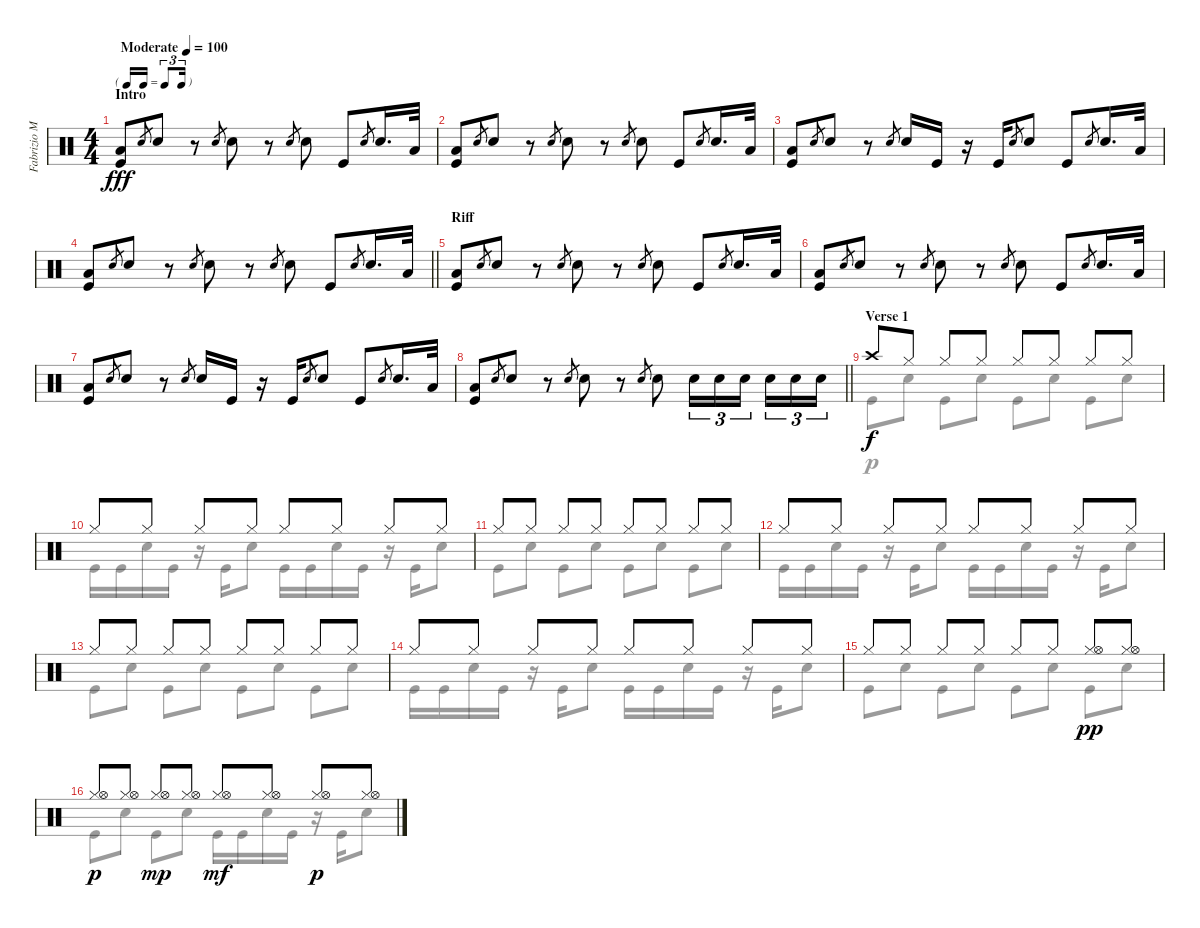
\track ("Fabrizio Moretti (Drum)" "Fabrizio M") {instrument percussion}
\staff {score}
\articulation defaults
\voice
\ts (4 4)
\tf triplet16th
\section ("" "Intro")
\tempo (100 "Moderate")
\clef neutral
\ks c
("Low Floor Tom (hit)" "Kick (hit)").8{dy fff} "Snare (hit) 2".8{gr} "Snare (hit) 2".8 r.8 "Snare (hit) 2".8{gr} "Snare (hit) 2".8 r.8 "Snare (hit) 2".8{gr} "Snare (hit) 2".8 "Kick (hit)".8 "Snare (hit) 2".8{gr} "Snare (hit) 2".16{d} "Low Floor Tom (hit)".32 |
("Low Floor Tom (hit)" "Kick (hit)").8 "Snare (hit) 2".8{gr} "Snare (hit) 2".8 r.8 "Snare (hit) 2".8{gr} "Snare (hit) 2".8 r.8 "Snare (hit) 2".8{gr} "Snare (hit) 2".8 "Kick (hit)".8 "Snare (hit) 2".8{gr} "Snare (hit) 2".16{d} "Low Floor Tom (hit)".32 |
("Low Floor Tom (hit)" "Kick (hit)").8 "Snare (hit) 2".8{gr} "Snare (hit) 2".8 r.8 "Snare (hit) 2".8{gr} "Snare (hit) 2".16 "Kick (hit)".16 r.16 "Kick (hit)".16 "Snare (hit) 2".8{gr} "Snare (hit) 2".8 "Kick (hit)".8 "Snare (hit) 2".8{gr} "Snare (hit) 2".16{d} "Low Floor Tom (hit)".32 |
\barLineRight lightlight
("Low Floor Tom (hit)" "Kick (hit)").8 "Snare (hit) 2".8{gr} "Snare (hit) 2".8 r.8 "Snare (hit) 2".8{gr} "Snare (hit) 2".8 r.8 "Snare (hit) 2".8{gr} "Snare (hit) 2".8 "Kick (hit)".8 "Snare (hit) 2".8{gr} "Snare (hit) 2".16{d} "Low Tom (hit)".32 |
\section ("" "Riff")
("Low Floor Tom (hit)" "Kick (hit)").8 "Snare (hit) 2".8{gr} "Snare (hit) 2".8 r.8 "Snare (hit) 2".8{gr} "Snare (hit) 2".8 r.8 "Snare (hit) 2".8{gr} "Snare (hit) 2".8 "Kick (hit)".8 "Snare (hit) 2".8{gr} "Snare (hit) 2".16{d} "Low Tom (hit)".32 |
("Low Floor Tom (hit)" "Kick (hit)").8 "Snare (hit) 2".8{gr} "Snare (hit) 2".8 r.8 "Snare (hit) 2".8{gr} "Snare (hit) 2".8 r.8 "Snare (hit) 2".8{gr} "Snare (hit) 2".8 "Kick (hit)".8 "Snare (hit) 2".8{gr} "Snare (hit) 2".16{d} "Low Tom (hit)".32 |
("Low Floor Tom (hit)" "Kick (hit)").8 "Snare (hit) 2".8{gr} "Snare (hit) 2".8 r.8 "Snare (hit) 2".8{gr} "Snare (hit) 2".16 "Kick (hit)".16 r.16 "Kick (hit)".16 "Snare (hit) 2".8{gr} "Snare (hit) 2".8 "Kick (hit)".8 "Snare (hit) 2".8{gr} "Snare (hit) 2".16{d} "Low Tom (hit)".32 |
\barLineRight lightlight
("Low Floor Tom (hit)" "Kick (hit)").8 "Snare (hit) 2".8{gr} "Snare (hit) 2".8 r.8 "Snare (hit) 2".8{gr} "Snare (hit) 2".8 r.8 "Snare (hit) 2".8{gr} "Snare (hit) 2".8 "Snare (hit) 2".16{tu (3 2)} "Snare (hit) 2".16{tu (3 2)} "Snare (hit) 2".16{tu (3 2) beam splitsecondary} "Snare (hit) 2".16{tu (3 2)} "Snare (hit) 2".16{tu (3 2)} "Snare (hit) 2".16{tu (3 2)} |
\section ("" "Verse 1")
"Crash high (hit)".8{dy f} "Hi-Hat (closed)".8 "Hi-Hat (closed)".8 "Hi-Hat (closed)".8 "Hi-Hat (closed)".8 "Hi-Hat (closed)".8 "Hi-Hat (closed)".8 "Hi-Hat (closed)".8 |
"Hi-Hat (closed)".8 "Hi-Hat (closed)".8 "Hi-Hat (closed)".8 "Hi-Hat (closed)".8 "Hi-Hat (closed)".8 "Hi-Hat (closed)".8 "Hi-Hat (closed)".8 "Hi-Hat (closed)".8 |
"Hi-Hat (closed)".8 "Hi-Hat (closed)".8 "Hi-Hat (closed)".8 "Hi-Hat (closed)".8 "Hi-Hat (closed)".8 "Hi-Hat (closed)".8 "Hi-Hat (closed)".8 "Hi-Hat (closed)".8 |
"Hi-Hat (closed)".8 "Hi-Hat (closed)".8 "Hi-Hat (closed)".8 "Hi-Hat (closed)".8 "Hi-Hat (closed)".8 "Hi-Hat (closed)".8 "Hi-Hat (closed)".8 "Hi-Hat (closed)".8 |
"Hi-Hat (closed)".8 "Hi-Hat (closed)".8 "Hi-Hat (closed)".8 "Hi-Hat (closed)".8 "Hi-Hat (closed)".8 "Hi-Hat (closed)".8 "Hi-Hat (closed)".8 "Hi-Hat (closed)".8 |
"Hi-Hat (closed)".8 "Hi-Hat (closed)".8 "Hi-Hat (closed)".8 "Hi-Hat (closed)".8 "Hi-Hat (closed)".8 "Hi-Hat (closed)".8 "Hi-Hat (closed)".8 "Hi-Hat (closed)".8 |
"Hi-Hat (closed)".8 "Hi-Hat (closed)".8 "Hi-Hat (closed)".8 "Hi-Hat (closed)".8 "Hi-Hat (closed)".8 "Hi-Hat (closed)".8 ("Hi-Hat (closed)" "Hi-Hat (open)").8{dy pp} ("Hi-Hat (closed)" "Hi-Hat (open)").8 |
("Hi-Hat (closed)" "Hi-Hat (open)").8{dy p} ("Hi-Hat (closed)" "Hi-Hat (open)").8 ("Hi-Hat (closed)" "Hi-Hat (open)").8{dy mp} ("Hi-Hat (closed)" "Hi-Hat (open)").8 ("Hi-Hat (closed)" "Hi-Hat (open)").8{dy mf} ("Hi-Hat (closed)" "Hi-Hat (open)").8 ("Hi-Hat (closed)" "Hi-Hat (open)").8{dy p} ("Hi-Hat (closed)" "Hi-Hat (open)").8
\voice
\clef neutral
\ottava regular
\simile none
\ks c
|
|
|
\barLineRight lightlight
|
|
|
|
\barLineRight lightlight
|
"Kick (hit)".8 "Snare (hit) 2".8 "Kick (hit)".8 "Snare (hit) 2".8 "Kick (hit)".8 "Snare (hit) 2".8 "Kick (hit)".8 "Snare (hit) 2".8 |
"Kick (hit)".16 "Kick (hit)".16 "Snare (hit) 2".16 "Kick (hit)".16 r.16 "Kick (hit)".16 "Snare (hit) 2".8 "Kick (hit)".16 "Kick (hit)".16 "Snare (hit) 2".16 "Kick (hit)".16 r.16 "Kick (hit)".16 "Snare (hit) 2".8 |
"Kick (hit)".8 "Snare (hit) 2".8 "Kick (hit)".8 "Snare (hit) 2".8 "Kick (hit)".8 "Snare (hit) 2".8 "Kick (hit)".8 "Snare (hit) 2".8 |
"Kick (hit)".16 "Kick (hit)".16 "Snare (hit) 2".16 "Kick (hit)".16 r.16 "Kick (hit)".16 "Snare (hit) 2".8 "Kick (hit)".16 "Kick (hit)".16 "Snare (hit) 2".16 "Kick (hit)".16 r.16 "Kick (hit)".16 "Snare (hit) 2".8 |
"Kick (hit)".8 "Snare (hit) 2".8 "Kick (hit)".8 "Snare (hit) 2".8 "Kick (hit)".8 "Snare (hit) 2".8 "Kick (hit)".8 "Snare (hit) 2".8 |
"Kick (hit)".16 "Kick (hit)".16 "Snare (hit) 2".16 "Kick (hit)".16 r.16 "Kick (hit)".16 "Snare (hit) 2".8 "Kick (hit)".16 "Kick (hit)".16 "Snare (hit) 2".16 "Kick (hit)".16 r.16 "Kick (hit)".16 "Snare (hit) 2".8 |
"Kick (hit)".8 "Snare (hit) 2".8 "Kick (hit)".8 "Snare (hit) 2".8 "Kick (hit)".8 "Snare (hit) 2".8 "Kick (hit)".8 "Snare (hit) 2".8 |
"Kick (hit)".8 "Snare (hit) 2".8 "Kick (hit)".8 "Snare (hit) 2".8 "Kick (hit)".16 "Kick (hit)".16 "Snare (hit) 2".16 "Kick (hit)".16 r.16 "Kick (hit)".16 "Snare (hit) 2".8
